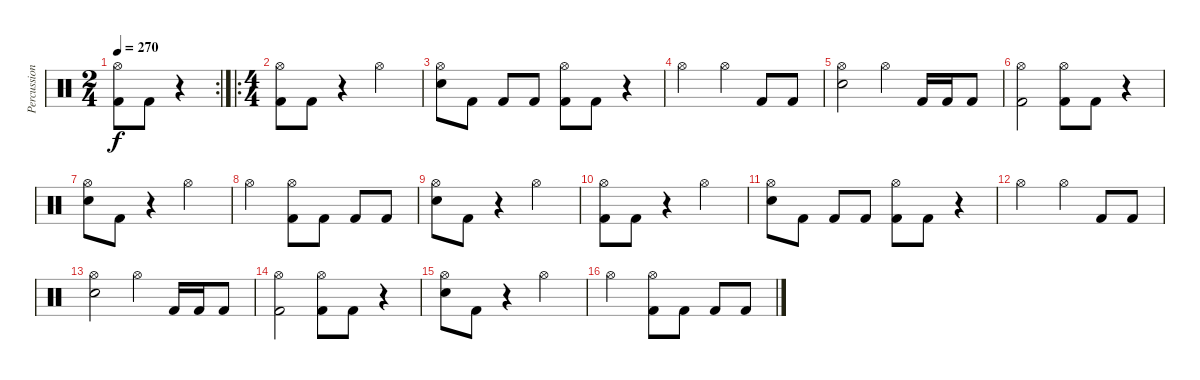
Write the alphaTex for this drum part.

\track ("Percussion" "Percussion") {instrument percussion}
\staff {score}
\articulation defaults
\rc 2
\ts (2 4)
\tempo 270
\clef neutral
\ks c
("Hi-Hat (open)" "Kick (hit) 2").8{dy f} "Kick (hit) 2".8 r.4 |
\ro
\ts (4 4)
("Hi-Hat (open)" "Kick (hit) 2").8{volume 12} "Kick (hit) 2".8 r.4 "Hi-Hat (open)".2 |
("Hi-Hat (open)" "Electric Snare (hit)").8 "Kick (hit) 2".8 "Kick (hit) 2".8 "Kick (hit) 2".8 ("Hi-Hat (open)" "Kick (hit) 2").8 "Kick (hit) 2".8 r.4 |
"Hi-Hat (open)".2 "Hi-Hat (open)".4 "Kick (hit) 2".8 "Kick (hit) 2".8 |
("Hi-Hat (open)" "Electric Snare (hit)").2 "Hi-Hat (open)".4 "Kick (hit) 2".16 "Kick (hit) 2".16 "Kick (hit) 2".8 |
("Hi-Hat (open)" "Kick (hit) 2").2 ("Hi-Hat (open)" "Kick (hit) 2").8 "Kick (hit) 2".8 r.4 |
("Hi-Hat (open)" "Electric Snare (hit)").8 "Kick (hit) 2".8 r.4 "Hi-Hat (open)".2 |
"Hi-Hat (open)".2 ("Hi-Hat (open)" "Kick (hit) 2").8 "Kick (hit) 2".8 "Kick (hit) 2".8 "Kick (hit) 2".8 |
("Hi-Hat (open)" "Electric Snare (hit)").8 "Kick (hit) 2".8 r.4 "Hi-Hat (open)".2 |
("Hi-Hat (open)" "Kick (hit) 2").8 "Kick (hit) 2".8 r.4 "Hi-Hat (open)".2 |
("Hi-Hat (open)" "Electric Snare (hit)").8 "Kick (hit) 2".8 "Kick (hit) 2".8 "Kick (hit) 2".8 ("Hi-Hat (open)" "Kick (hit) 2").8 "Kick (hit) 2".8 r.4 |
"Hi-Hat (open)".2 "Hi-Hat (open)".4 "Kick (hit) 2".8 "Kick (hit) 2".8 |
("Hi-Hat (open)" "Electric Snare (hit)").2 "Hi-Hat (open)".4 "Kick (hit) 2".16 "Kick (hit) 2".16 "Kick (hit) 2".8 |
("Hi-Hat (open)" "Kick (hit) 2").2 ("Hi-Hat (open)" "Kick (hit) 2").8 "Kick (hit) 2".8 r.4 |
("Hi-Hat (open)" "Electric Snare (hit)").8 "Kick (hit) 2".8 r.4 "Hi-Hat (open)".2 |
"Hi-Hat (open)".2 ("Hi-Hat (open)" "Kick (hit) 2").8 "Kick (hit) 2".8 "Kick (hit) 2".8 "Kick (hit) 2".8
